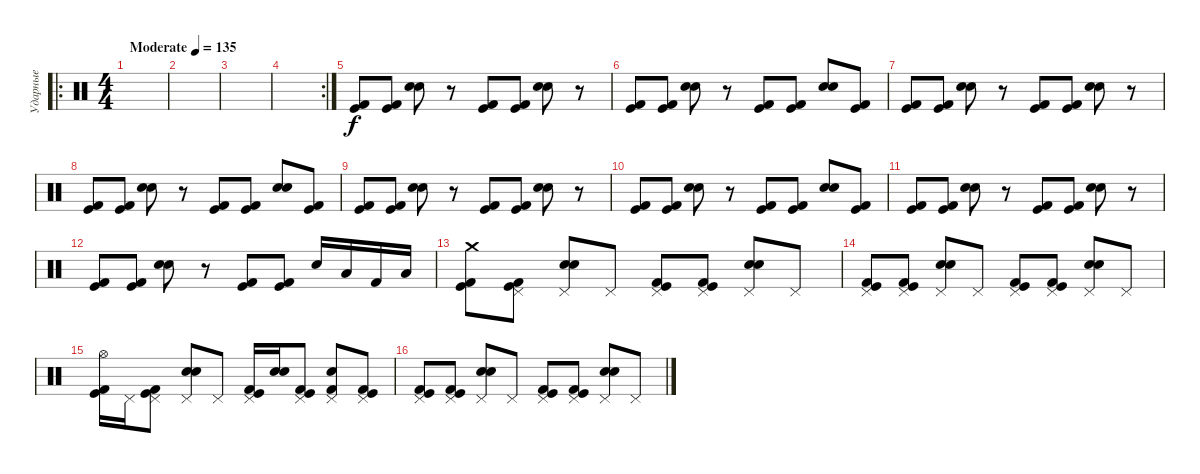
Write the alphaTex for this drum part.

\track ("Ударные" "Ударные") {instrument percussion}
\staff {score}
\articulation defaults
\ro
\ts (4 4)
\tempo (135 "Moderate")
\clef neutral
\ks c
|
|
|
\rc 2
|
("Kick (hit)" "Kick (hit) 2").8 ("Kick (hit)" "Kick (hit) 2").8 ("Snare (hit) 2" "Electric Snare (hit)").8 r.8 ("Kick (hit)" "Kick (hit) 2").8 ("Kick (hit)" "Kick (hit) 2").8 ("Snare (hit) 2" "Electric Snare (hit)").8 r.8 |
("Kick (hit)" "Kick (hit) 2").8 ("Kick (hit)" "Kick (hit) 2").8 ("Snare (hit) 2" "Electric Snare (hit)").8 r.8 ("Kick (hit)" "Kick (hit) 2").8 ("Kick (hit)" "Kick (hit) 2").8 ("Snare (hit) 2" "Electric Snare (hit)").8 ("Kick (hit)" "Kick (hit) 2").8 |
("Kick (hit)" "Kick (hit) 2").8 ("Kick (hit)" "Kick (hit) 2").8 ("Snare (hit) 2" "Electric Snare (hit)").8 r.8 ("Kick (hit)" "Kick (hit) 2").8 ("Kick (hit)" "Kick (hit) 2").8 ("Snare (hit) 2" "Electric Snare (hit)").8 r.8 |
("Kick (hit)" "Kick (hit) 2").8 ("Kick (hit)" "Kick (hit) 2").8 ("Snare (hit) 2" "Electric Snare (hit)").8 r.8 ("Kick (hit)" "Kick (hit) 2").8 ("Kick (hit)" "Kick (hit) 2").8 ("Snare (hit) 2" "Electric Snare (hit)").8 ("Kick (hit)" "Kick (hit) 2").8 |
("Kick (hit)" "Kick (hit) 2").8 ("Kick (hit)" "Kick (hit) 2").8 ("Snare (hit) 2" "Electric Snare (hit)").8 r.8 ("Kick (hit)" "Kick (hit) 2").8 ("Kick (hit)" "Kick (hit) 2").8 ("Snare (hit) 2" "Electric Snare (hit)").8 r.8 |
("Kick (hit)" "Kick (hit) 2").8 ("Kick (hit)" "Kick (hit) 2").8 ("Snare (hit) 2" "Electric Snare (hit)").8 r.8 ("Kick (hit)" "Kick (hit) 2").8 ("Kick (hit)" "Kick (hit) 2").8 ("Snare (hit) 2" "Electric Snare (hit)").8 ("Kick (hit)" "Kick (hit) 2").8 |
("Kick (hit)" "Kick (hit) 2").8 ("Kick (hit)" "Kick (hit) 2").8 ("Snare (hit) 2" "Electric Snare (hit)").8 r.8 ("Kick (hit)" "Kick (hit) 2").8 ("Kick (hit)" "Kick (hit) 2").8 ("Snare (hit) 2" "Electric Snare (hit)").8 r.8 |
("Kick (hit)" "Kick (hit) 2").8 ("Kick (hit)" "Kick (hit) 2").8 ("Snare (hit) 2" "Electric Snare (hit)").8 r.8 ("Kick (hit)" "Kick (hit) 2").8 ("Kick (hit)" "Kick (hit) 2").8 "Electric Snare (hit)".16 "Low Tom (hit)".16 "Kick (hit) 2".16 "Low Floor Tom (hit)".16 |
("Crash medium (hit)" "Kick (hit)" "Kick (hit) 2").8 ("Pedal Hi-Hat (hit)" "Kick (hit)" "Kick (hit) 2").8 ("Pedal Hi-Hat (hit)" "Snare (hit) 2" "Electric Snare (hit)").8 "Pedal Hi-Hat (hit)".8 ("Pedal Hi-Hat (hit)" "Kick (hit)" "Kick (hit) 2").8 ("Pedal Hi-Hat (hit)" "Kick (hit)" "Kick (hit) 2").8 ("Pedal Hi-Hat (hit)" "Snare (hit) 2" "Electric Snare (hit)").8 "Pedal Hi-Hat (hit)".8 |
("Pedal Hi-Hat (hit)" "Kick (hit)" "Kick (hit) 2").8 ("Pedal Hi-Hat (hit)" "Kick (hit)" "Kick (hit) 2").8 ("Pedal Hi-Hat (hit)" "Snare (hit) 2" "Electric Snare (hit)").8 "Pedal Hi-Hat (hit)".8 ("Pedal Hi-Hat (hit)" "Kick (hit)" "Kick (hit) 2").8 ("Pedal Hi-Hat (hit)" "Kick (hit)" "Kick (hit) 2").8 ("Pedal Hi-Hat (hit)" "Snare (hit) 2" "Electric Snare (hit)").8 "Pedal Hi-Hat (hit)".8 |
("Hi-Hat (open)" "Kick (hit)" "Kick (hit) 2").16 "Pedal Hi-Hat (hit)".16 ("Pedal Hi-Hat (hit)" "Kick (hit)" "Kick (hit) 2").8 ("Pedal Hi-Hat (hit)" "Snare (hit) 2" "Electric Snare (hit)").8 "Pedal Hi-Hat (hit)".8 ("Pedal Hi-Hat (hit)" "Kick (hit)" "Kick (hit) 2").16 ("Snare (hit) 2" "Electric Snare (hit)").16 ("Pedal Hi-Hat (hit)" "Kick (hit)" "Kick (hit) 2").8 ("Pedal Hi-Hat (hit)" "Kick (hit) 2" "Electric Snare (hit)").8 ("Pedal Hi-Hat (hit)" "Kick (hit)" "Kick (hit) 2").8 |
("Pedal Hi-Hat (hit)" "Kick (hit)" "Kick (hit) 2").8 ("Pedal Hi-Hat (hit)" "Kick (hit)" "Kick (hit) 2").8 ("Pedal Hi-Hat (hit)" "Snare (hit) 2" "Electric Snare (hit)").8 "Pedal Hi-Hat (hit)".8 ("Pedal Hi-Hat (hit)" "Kick (hit)" "Kick (hit) 2").8 ("Pedal Hi-Hat (hit)" "Kick (hit)" "Kick (hit) 2").8 ("Pedal Hi-Hat (hit)" "Snare (hit) 2" "Electric Snare (hit)").8 "Pedal Hi-Hat (hit)".8
